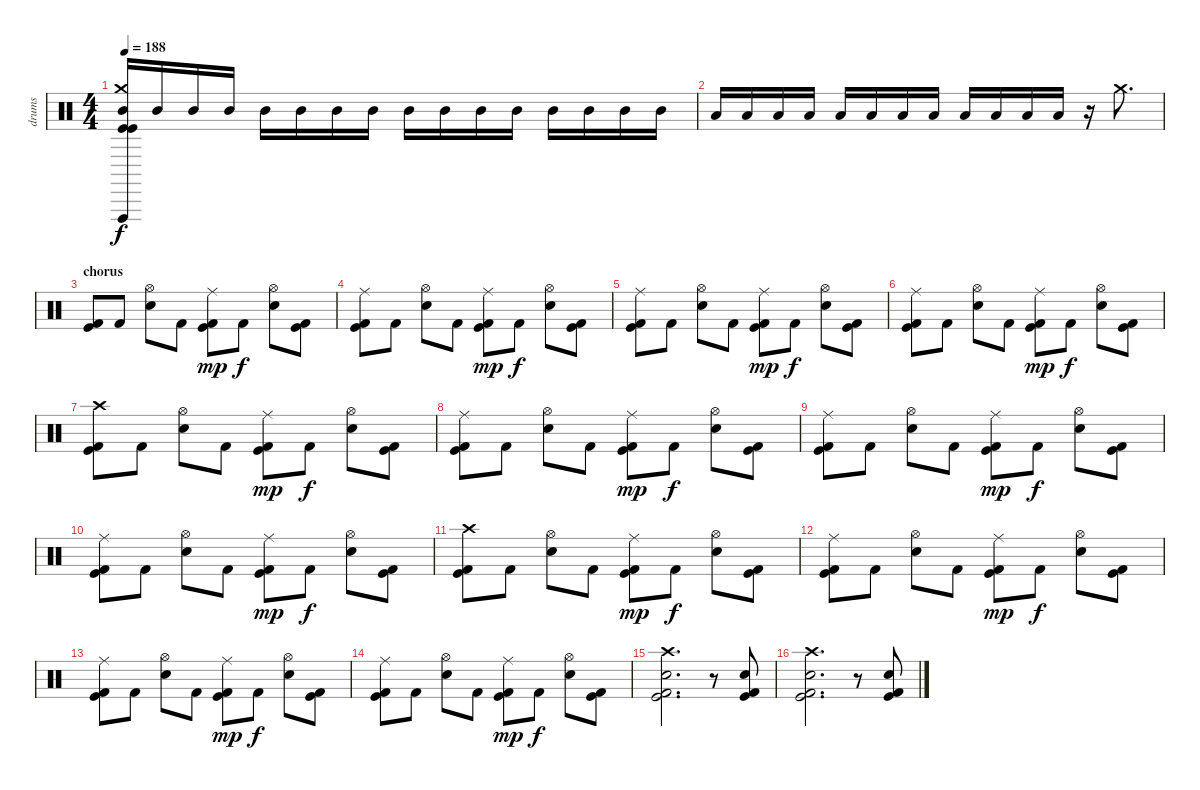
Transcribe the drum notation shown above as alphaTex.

\track ("drums" "drums") {instrument percussion}
\staff {score}
\articulation defaults
\ts (4 4)
\tempo 188
\clef neutral
\ks c
("Vibraslap (hit)" "Crash medium (hit)" "Mid Tom (hit)" "Kick (hit)" "Kick (hit)").16{dy f} "Mid Tom (hit)".16 "Mid Tom (hit)".16 "Mid Tom (hit)".16 "Mid Tom (hit)".16 "Mid Tom (hit)".16 "Mid Tom (hit)".16 "Mid Tom (hit)".16 "Mid Tom (hit)".16 "Mid Tom (hit)".16 "Mid Tom (hit)".16 "Mid Tom (hit)".16 "Mid Tom (hit)".16 "Mid Tom (hit)".16 "Mid Tom (hit)".16 "Mid Tom (hit)".16 |
"Low Tom (hit)".16 "Low Tom (hit)".16 "Low Tom (hit)".16 "Low Tom (hit)".16 "Low Tom (hit)".16 "Low Tom (hit)".16 "Low Tom (hit)".16 "Low Tom (hit)".16 "Low Tom (hit)".16 "Low Tom (hit)".16 "Low Tom (hit)".16 "Low Tom (hit)".16 r.16 "Crash medium (hit)".8{d} |
\section ("" "chorus")
("Kick (hit)" "Kick (hit) 2").8 "Kick (hit) 2".8 ("Hi-Hat (open)" "Snare (hit) 2").8 "Kick (hit) 2".8 ("Ride (middle)" "Kick (hit)" "Kick (hit) 2").8{dy mp} "Kick (hit) 2".8{dy f} ("Hi-Hat (open)" "Snare (hit) 2").8 ("Kick (hit)" "Kick (hit) 2").8 |
("Ride (middle)" "Kick (hit)" "Kick (hit) 2").8 "Kick (hit) 2".8 ("Hi-Hat (open)" "Snare (hit) 2").8 "Kick (hit) 2".8 ("Ride (middle)" "Kick (hit)" "Kick (hit) 2").8{dy mp} "Kick (hit) 2".8{dy f} ("Hi-Hat (open)" "Snare (hit) 2").8 ("Kick (hit)" "Kick (hit) 2").8 |
("Ride (middle)" "Kick (hit)" "Kick (hit) 2").8 "Kick (hit) 2".8 ("Hi-Hat (open)" "Snare (hit) 2").8 "Kick (hit) 2".8 ("Ride (middle)" "Kick (hit)" "Kick (hit) 2").8{dy mp} "Kick (hit) 2".8{dy f} ("Hi-Hat (open)" "Snare (hit) 2").8 ("Kick (hit)" "Kick (hit) 2").8 |
("Ride (middle)" "Kick (hit)" "Kick (hit) 2").8 "Kick (hit) 2".8 ("Hi-Hat (open)" "Snare (hit) 2").8 "Kick (hit) 2".8 ("Ride (middle)" "Kick (hit)" "Kick (hit) 2").8{dy mp} "Kick (hit) 2".8{dy f} ("Hi-Hat (open)" "Snare (hit) 2").8 ("Kick (hit)" "Kick (hit) 2").8 |
("Crash high (hit)" "Kick (hit)" "Kick (hit) 2").8 "Kick (hit) 2".8 ("Hi-Hat (open)" "Snare (hit) 2").8 "Kick (hit) 2".8 ("Ride (middle)" "Kick (hit)" "Kick (hit) 2").8{dy mp} "Kick (hit) 2".8{dy f} ("Hi-Hat (open)" "Snare (hit) 2").8 ("Kick (hit)" "Kick (hit) 2").8 |
("Ride (middle)" "Kick (hit)" "Kick (hit) 2").8 "Kick (hit) 2".8 ("Hi-Hat (open)" "Snare (hit) 2").8 "Kick (hit) 2".8 ("Ride (middle)" "Kick (hit)" "Kick (hit) 2").8{dy mp} "Kick (hit) 2".8{dy f} ("Hi-Hat (open)" "Snare (hit) 2").8 ("Kick (hit)" "Kick (hit) 2").8 |
("Ride (middle)" "Kick (hit)" "Kick (hit) 2").8 "Kick (hit) 2".8 ("Hi-Hat (open)" "Snare (hit) 2").8 "Kick (hit) 2".8 ("Ride (middle)" "Kick (hit)" "Kick (hit) 2").8{dy mp} "Kick (hit) 2".8{dy f} ("Hi-Hat (open)" "Snare (hit) 2").8 ("Kick (hit)" "Kick (hit) 2").8 |
("Ride (middle)" "Kick (hit)" "Kick (hit) 2").8 "Kick (hit) 2".8 ("Hi-Hat (open)" "Snare (hit) 2").8 "Kick (hit) 2".8 ("Ride (middle)" "Kick (hit)" "Kick (hit) 2").8{dy mp} "Kick (hit) 2".8{dy f} ("Hi-Hat (open)" "Snare (hit) 2").8 ("Kick (hit)" "Kick (hit) 2").8 |
("Crash high (hit)" "Kick (hit)" "Kick (hit) 2").8 "Kick (hit) 2".8 ("Hi-Hat (open)" "Snare (hit) 2").8 "Kick (hit) 2".8 ("Ride (middle)" "Kick (hit)" "Kick (hit) 2").8{dy mp} "Kick (hit) 2".8{dy f} ("Hi-Hat (open)" "Snare (hit) 2").8 ("Kick (hit)" "Kick (hit) 2").8 |
("Ride (middle)" "Kick (hit)" "Kick (hit) 2").8 "Kick (hit) 2".8 ("Hi-Hat (open)" "Snare (hit) 2").8 "Kick (hit) 2".8 ("Ride (middle)" "Kick (hit)" "Kick (hit) 2").8{dy mp} "Kick (hit) 2".8{dy f} ("Hi-Hat (open)" "Snare (hit) 2").8 ("Kick (hit)" "Kick (hit) 2").8 |
("Ride (middle)" "Kick (hit)" "Kick (hit) 2").8 "Kick (hit) 2".8 ("Hi-Hat (open)" "Snare (hit) 2").8 "Kick (hit) 2".8 ("Ride (middle)" "Kick (hit)" "Kick (hit) 2").8{dy mp} "Kick (hit) 2".8{dy f} ("Hi-Hat (open)" "Snare (hit) 2").8 ("Kick (hit)" "Kick (hit) 2").8 |
("Ride (middle)" "Kick (hit)" "Kick (hit) 2").8 "Kick (hit) 2".8 ("Hi-Hat (open)" "Snare (hit) 2").8 "Kick (hit) 2".8 ("Ride (middle)" "Kick (hit)" "Kick (hit) 2").8{dy mp} "Kick (hit) 2".8{dy f} ("Hi-Hat (open)" "Snare (hit) 2").8 ("Kick (hit)" "Kick (hit) 2").8 |
("Crash high (hit)" "Snare (hit) 2" "Kick (hit)" "Kick (hit) 2").2{d} r.8 ("Snare (hit) 2" "Kick (hit)" "Kick (hit) 2").8 |
("Crash high (hit)" "Snare (hit) 2" "Kick (hit)" "Kick (hit) 2").2{d} r.8 ("Snare (hit) 2" "Kick (hit)" "Kick (hit) 2").8
